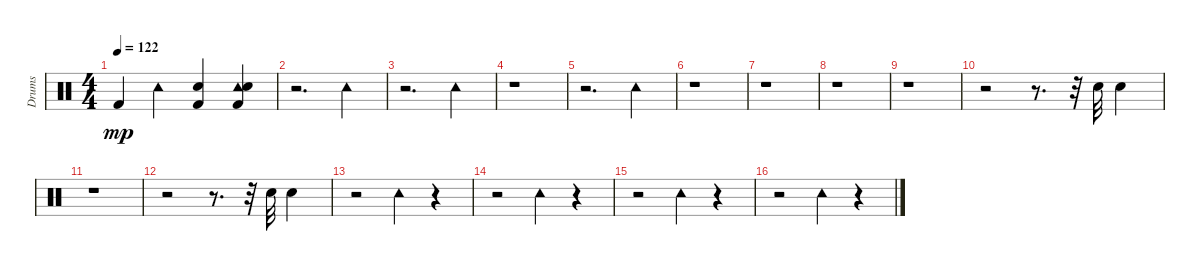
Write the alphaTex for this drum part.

\track ("Drums" "Drums") {instrument percussion}
\staff {score}
\articulation defaults
\ts (4 4)
\tempo 122
\clef neutral
\ks c "Kick (hit) 2".4{dy mp} "Tambourine (hit)".4
("Kick (hit) 2" "Snare (hit) 2").4 ("Tambourine (hit)" "Kick (hit) 2" "Snare (hit) 2").4 |
r.2{d} "Tambourine (hit)".4 |
r.2{d} "Tambourine (hit)".4 |
r.1 |
r.2{d} "Tambourine (hit)".4 |
r.1 |
r.1 |
r.1 |
r.1 |
r.2 r.8{d} r.32 "Hand Clap (hit)".32 "Hand Clap (hit)".4 |
r.1 |
r.2 r.8{d} r.32 "Hand Clap (hit)".32 "Hand Clap (hit)".4 |
r.2 "Tambourine (hit)".4 r.4 |
r.2 "Tambourine (hit)".4 r.4 |
r.2 "Tambourine (hit)".4 r.4 |
r.2 "Tambourine (hit)".4 r.4
